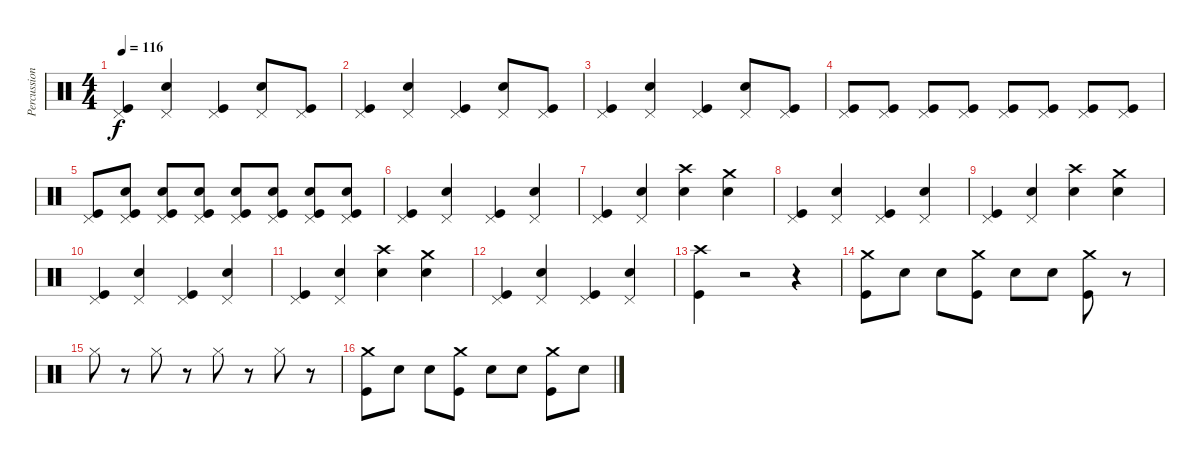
\track ("Percussions" "Percussion") {instrument percussion}
\staff {score}
\articulation defaults
\ts (4 4)
\tempo 116
\clef neutral
\ks c
("Pedal Hi-Hat (hit)" "Kick (hit)").4{dy f} ("Pedal Hi-Hat (hit)" "Electric Snare (hit)").4 ("Pedal Hi-Hat (hit)" "Kick (hit)").4 ("Pedal Hi-Hat (hit)" "Electric Snare (hit)").8 ("Pedal Hi-Hat (hit)" "Kick (hit)").8 |
("Pedal Hi-Hat (hit)" "Kick (hit)").4 ("Pedal Hi-Hat (hit)" "Electric Snare (hit)").4 ("Pedal Hi-Hat (hit)" "Kick (hit)").4 ("Pedal Hi-Hat (hit)" "Electric Snare (hit)").8 ("Pedal Hi-Hat (hit)" "Kick (hit)").8 |
("Pedal Hi-Hat (hit)" "Kick (hit)").4 ("Pedal Hi-Hat (hit)" "Electric Snare (hit)").4 ("Pedal Hi-Hat (hit)" "Kick (hit)").4 ("Pedal Hi-Hat (hit)" "Electric Snare (hit)").8 ("Pedal Hi-Hat (hit)" "Kick (hit)").8 |
("Kick (hit)" "Pedal Hi-Hat (hit)").8 ("Kick (hit)" "Pedal Hi-Hat (hit)").8 ("Kick (hit)" "Pedal Hi-Hat (hit)").8 ("Kick (hit)" "Pedal Hi-Hat (hit)").8 ("Kick (hit)" "Pedal Hi-Hat (hit)").8 ("Pedal Hi-Hat (hit)" "Kick (hit)").8 ("Kick (hit)" "Pedal Hi-Hat (hit)").8 ("Pedal Hi-Hat (hit)" "Kick (hit)").8 |
("Pedal Hi-Hat (hit)" "Kick (hit)").8 ("Snare (hit) 2" "Pedal Hi-Hat (hit)" "Kick (hit)").8 ("Snare (hit) 2" "Pedal Hi-Hat (hit)" "Kick (hit)").8 ("Snare (hit) 2" "Pedal Hi-Hat (hit)" "Kick (hit)").8 ("Snare (hit) 2" "Pedal Hi-Hat (hit)" "Kick (hit)").8 ("Snare (hit) 2" "Pedal Hi-Hat (hit)" "Kick (hit)").8 ("Snare (hit) 2" "Pedal Hi-Hat (hit)" "Kick (hit)").8 ("Snare (hit) 2" "Pedal Hi-Hat (hit)" "Kick (hit)").8 |
("Pedal Hi-Hat (hit)" "Kick (hit)").4 ("Pedal Hi-Hat (hit)" "Electric Snare (hit)").4 ("Pedal Hi-Hat (hit)" "Kick (hit)").4 ("Pedal Hi-Hat (hit)" "Electric Snare (hit)").4 |
("Pedal Hi-Hat (hit)" "Kick (hit)").4 ("Pedal Hi-Hat (hit)" "Electric Snare (hit)").4 ("Electric Snare (hit)" "Crash high (hit)").4 ("Crash medium (hit)" "Electric Snare (hit)").4 |
("Pedal Hi-Hat (hit)" "Kick (hit)").4 ("Pedal Hi-Hat (hit)" "Electric Snare (hit)").4 ("Pedal Hi-Hat (hit)" "Kick (hit)").4 ("Pedal Hi-Hat (hit)" "Electric Snare (hit)").4 |
("Pedal Hi-Hat (hit)" "Kick (hit)").4 ("Pedal Hi-Hat (hit)" "Electric Snare (hit)").4 ("Electric Snare (hit)" "Crash high (hit)").4 ("Crash medium (hit)" "Electric Snare (hit)").4 |
("Pedal Hi-Hat (hit)" "Kick (hit)").4 ("Pedal Hi-Hat (hit)" "Electric Snare (hit)").4 ("Pedal Hi-Hat (hit)" "Kick (hit)").4 ("Pedal Hi-Hat (hit)" "Electric Snare (hit)").4 |
("Pedal Hi-Hat (hit)" "Kick (hit)").4 ("Pedal Hi-Hat (hit)" "Electric Snare (hit)").4 ("Electric Snare (hit)" "Crash high (hit)").4 ("Crash medium (hit)" "Electric Snare (hit)").4 |
("Pedal Hi-Hat (hit)" "Kick (hit)").4 ("Pedal Hi-Hat (hit)" "Electric Snare (hit)").4 ("Pedal Hi-Hat (hit)" "Kick (hit)").4 ("Pedal Hi-Hat (hit)" "Electric Snare (hit)").4 |
("Crash high (hit)" "Kick (hit)").4 r.2 r.4 |
("Crash medium (hit)" "Kick (hit)").8 "Electric Snare (hit)".8 "Electric Snare (hit)".8 ("Crash medium (hit)" "Kick (hit)").8 "Electric Snare (hit)".8 "Electric Snare (hit)".8 ("Crash medium (hit)" "Kick (hit)").8 r.8 |
"Hi-Hat (closed)".8 r.8 "Hi-Hat (closed)".8 r.8 "Hi-Hat (closed)".8 r.8 "Hi-Hat (closed)".8 r.8 |
("Crash medium (hit)" "Kick (hit)").8 "Electric Snare (hit)".8 "Electric Snare (hit)".8 ("Crash medium (hit)" "Kick (hit)").8 "Electric Snare (hit)".8 "Electric Snare (hit)".8 ("Crash medium (hit)" "Kick (hit)").8 "Electric Snare (hit)".8
